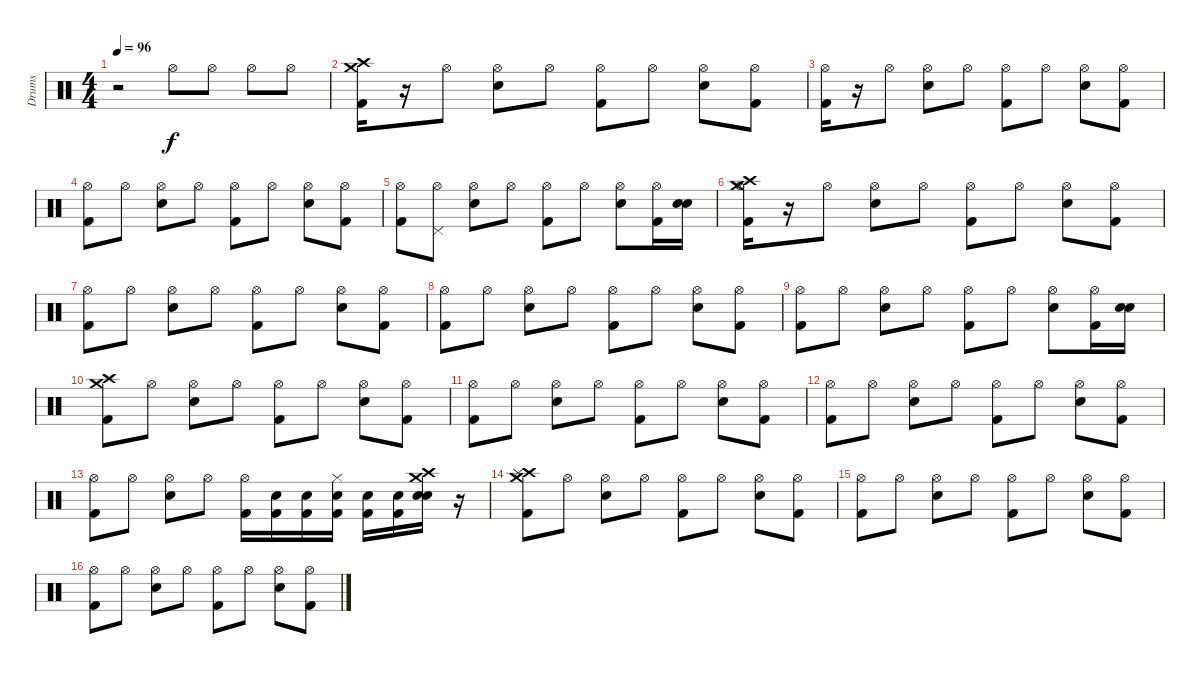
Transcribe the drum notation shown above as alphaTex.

\track ("Drums" "Drums") {instrument percussion}
\staff {score}
\articulation defaults
\ts (4 4)
\tempo 96
\clef neutral
\ks c
r.2{dy f} "Hi-Hat (open)".8 "Hi-Hat (open)".8 "Hi-Hat (open)".8 "Hi-Hat (open)".8 |
("Crash medium (hit)" "Crash high (hit)" "Kick (hit) 2").16 r.16 "Hi-Hat (open)".8 ("Snare (hit) 2" "Hi-Hat (open)").8 "Hi-Hat (open)".8 ("Kick (hit) 2" "Hi-Hat (open)").8 "Hi-Hat (open)".8 ("Snare (hit) 2" "Hi-Hat (open)").8 ("Kick (hit) 2" "Hi-Hat (open)").8 |
("Kick (hit) 2" "Hi-Hat (open)").16 r.16 "Hi-Hat (open)".8 ("Snare (hit) 2" "Hi-Hat (open)").8 "Hi-Hat (open)".8 ("Kick (hit) 2" "Hi-Hat (open)").8 "Hi-Hat (open)".8 ("Snare (hit) 2" "Hi-Hat (open)").8 ("Hi-Hat (open)" "Kick (hit) 2").8 |
("Hi-Hat (open)" "Kick (hit) 2").8 "Hi-Hat (open)".8 ("Snare (hit) 2" "Hi-Hat (open)").8 "Hi-Hat (open)".8 ("Kick (hit) 2" "Hi-Hat (open)").8 "Hi-Hat (open)".8 ("Snare (hit) 2" "Hi-Hat (open)").8 ("Kick (hit) 2" "Hi-Hat (open)").8 |
("Hi-Hat (open)" "Kick (hit) 2").8 ("Pedal Hi-Hat (hit)" "Hi-Hat (open)").8 ("Snare (hit) 2" "Hi-Hat (open)").8 "Hi-Hat (open)".8 ("Kick (hit) 2" "Hi-Hat (open)").8 "Hi-Hat (open)".8 ("Snare (hit) 2" "Hi-Hat (open)").8 ("Kick (hit) 2" "Hi-Hat (open)").16 ("Snare (hit)" "Snare (hit) 2").16 |
("Crash high (hit)" "Crash medium (hit)" "Hi-Hat (open)" "Kick (hit) 2").16 r.16 "Hi-Hat (open)".8 ("Snare (hit) 2" "Hi-Hat (open)").8 "Hi-Hat (open)".8 ("Kick (hit) 2" "Hi-Hat (open)").8 "Hi-Hat (open)".8 ("Snare (hit) 2" "Hi-Hat (open)").8 ("Kick (hit) 2" "Hi-Hat (open)").8 |
("Kick (hit) 2" "Hi-Hat (open)").8 "Hi-Hat (open)".8 ("Snare (hit) 2" "Hi-Hat (open)").8 "Hi-Hat (open)".8 ("Kick (hit) 2" "Hi-Hat (open)").8 "Hi-Hat (open)".8 ("Snare (hit) 2" "Hi-Hat (open)").8 ("Kick (hit) 2" "Hi-Hat (open)").8 |
("Hi-Hat (open)" "Kick (hit) 2").8 "Hi-Hat (open)".8 ("Snare (hit) 2" "Hi-Hat (open)").8 "Hi-Hat (open)".8 ("Kick (hit) 2" "Hi-Hat (open)").8 "Hi-Hat (open)".8 ("Snare (hit) 2" "Hi-Hat (open)").8 ("Kick (hit) 2" "Hi-Hat (open)").8 |
("Hi-Hat (open)" "Kick (hit) 2").8 "Hi-Hat (open)".8 ("Hi-Hat (open)" "Snare (hit) 2").8 "Hi-Hat (open)".8 ("Hi-Hat (open)" "Kick (hit) 2").8 "Hi-Hat (open)".8 ("Hi-Hat (open)" "Snare (hit) 2").8 ("Kick (hit) 2" "Hi-Hat (open)").16 ("Snare (hit)" "Snare (hit) 2").16 |
("Crash high (hit)" "Crash medium (hit)" "Kick (hit) 2").8 "Hi-Hat (open)".8 ("Snare (hit) 2" "Hi-Hat (open)").8 "Hi-Hat (open)".8 ("Kick (hit) 2" "Hi-Hat (open)").8 "Hi-Hat (open)".8 ("Snare (hit) 2" "Hi-Hat (open)").8 ("Kick (hit) 2" "Hi-Hat (open)").8 |
("Hi-Hat (open)" "Kick (hit) 2").8 "Hi-Hat (open)".8 ("Snare (hit) 2" "Hi-Hat (open)").8 "Hi-Hat (open)".8 ("Kick (hit) 2" "Hi-Hat (open)").8 "Hi-Hat (open)".8 ("Snare (hit) 2" "Hi-Hat (open)").8 ("Kick (hit) 2" "Hi-Hat (open)").8 |
("Hi-Hat (open)" "Kick (hit) 2").8 "Hi-Hat (open)".8 ("Snare (hit) 2" "Hi-Hat (open)").8 "Hi-Hat (open)".8 ("Kick (hit) 2" "Hi-Hat (open)").8 "Hi-Hat (open)".8 ("Snare (hit) 2" "Hi-Hat (open)").8 ("Kick (hit) 2" "Hi-Hat (open)").8 |
("Hi-Hat (open)" "Kick (hit) 2").8 "Hi-Hat (open)".8 ("Hi-Hat (open)" "Snare (hit) 2").8 "Hi-Hat (open)".8 ("Kick (hit) 2" "Hi-Hat (open)").16 ("Snare (hit)" "Kick (hit) 2").16 ("Snare (hit)" "Kick (hit) 2").16 ("Snare (hit)" "Kick (hit) 2" "Hi-Hat (closed)").16 ("Snare (hit)" "Kick (hit) 2").16 ("Snare (hit)" "Kick (hit) 2").16 ("Snare (hit)" "Snare (hit) 2" "Crash high (hit)" "Crash medium (hit)").16 r.16 |
("Crash high (hit)" "Crash medium (hit)" "Splash (hit)" "Kick (hit) 2").8 "Hi-Hat (open)".8 ("Snare (hit) 2" "Hi-Hat (open)").8 "Hi-Hat (open)".8 ("Kick (hit) 2" "Hi-Hat (open)").8 "Hi-Hat (open)".8 ("Snare (hit) 2" "Hi-Hat (open)").8 ("Kick (hit) 2" "Hi-Hat (open)").8 |
("Hi-Hat (open)" "Kick (hit) 2").8 "Hi-Hat (open)".8 ("Hi-Hat (open)" "Snare (hit) 2").8 "Hi-Hat (open)".8 ("Hi-Hat (open)" "Kick (hit) 2").8 "Hi-Hat (open)".8 ("Hi-Hat (open)" "Snare (hit) 2").8 ("Hi-Hat (open)" "Kick (hit) 2").8 |
("Hi-Hat (open)" "Kick (hit) 2").8 "Hi-Hat (open)".8 ("Hi-Hat (open)" "Snare (hit) 2").8 "Hi-Hat (open)".8 ("Hi-Hat (open)" "Kick (hit) 2").8 "Hi-Hat (open)".8 ("Hi-Hat (open)" "Snare (hit) 2").8 ("Hi-Hat (open)" "Kick (hit) 2").8
